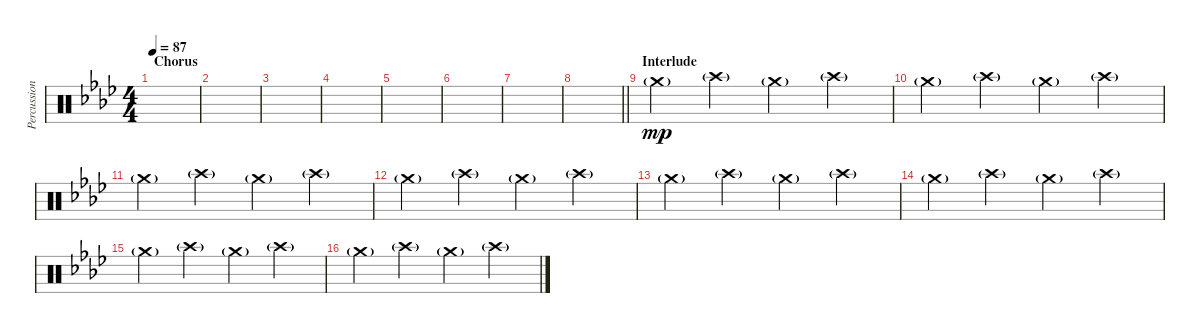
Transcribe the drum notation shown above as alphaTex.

\track ("Percussion" "Percussion") {instrument percussion}
\staff {score}
\articulation defaults
\ts (4 4)
\section ("" "Chorus")
\tempo 87
\clef neutral
\ks fminor
|
|
|
|
|
|
|
\barLineRight lightlight
|
\section ("" "Interlude")
"Crash medium (hit)"{g}.4{dy mp volume 6} "Crash high (hit)"{g}.4 "Crash medium (hit)"{g}.4 "Crash high (hit)"{g}.4 |
"Crash medium (hit)"{g}.4 "Crash high (hit)"{g}.4 "Crash medium (hit)"{g}.4 "Crash high (hit)"{g}.4 |
"Crash medium (hit)"{g}.4 "Crash high (hit)"{g}.4 "Crash medium (hit)"{g}.4 "Crash high (hit)"{g}.4 |
"Crash medium (hit)"{g}.4 "Crash high (hit)"{g}.4 "Crash medium (hit)"{g}.4 "Crash high (hit)"{g}.4 |
"Crash medium (hit)"{g}.4{volume 0} "Crash high (hit)"{g}.4 "Crash medium (hit)"{g}.4 "Crash high (hit)"{g}.4 |
"Crash medium (hit)"{g}.4 "Crash high (hit)"{g}.4 "Crash medium (hit)"{g}.4 "Crash high (hit)"{g}.4 |
"Crash medium (hit)"{g}.4 "Crash high (hit)"{g}.4 "Crash medium (hit)"{g}.4 "Crash high (hit)"{g}.4 |
"Crash medium (hit)"{g}.4 "Crash high (hit)"{g}.4 "Crash medium (hit)"{g}.4 "Crash high (hit)"{g}.4
